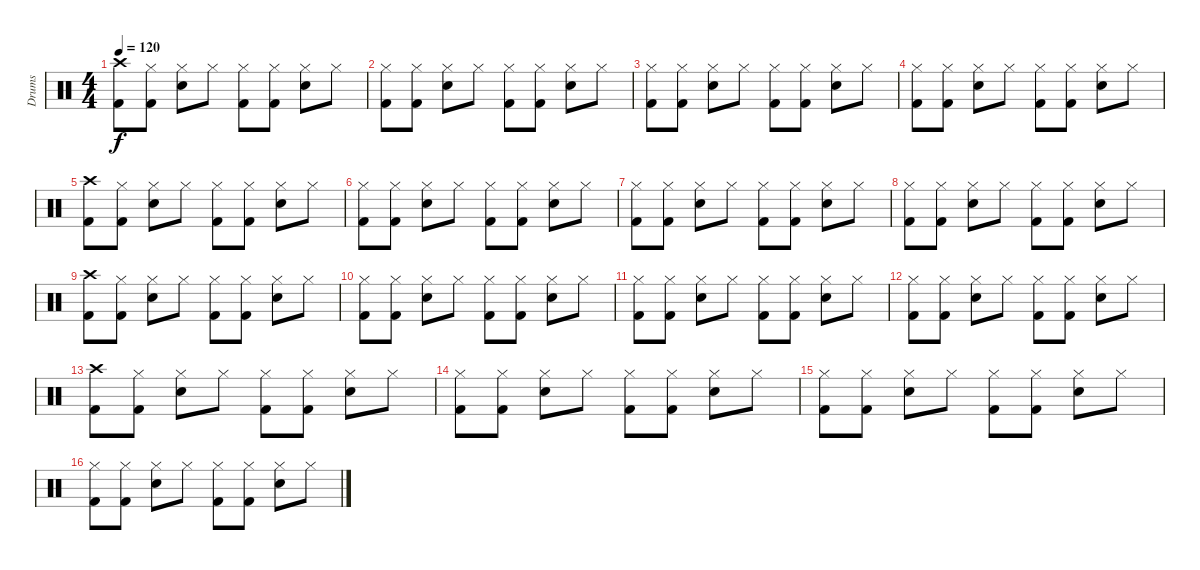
\track ("Drums" "Drums") {instrument percussion}
\staff {score}
\articulation defaults
\ts (4 4)
\tempo 120
\clef neutral
\ks c
("Crash high (hit)" "Kick (hit) 2").8{dy f} ("Hi-Hat (closed)" "Kick (hit) 2").8 ("Hi-Hat (closed)" "Electric Snare (hit)").8 "Hi-Hat (closed)".8 ("Hi-Hat (closed)" "Kick (hit) 2").8 ("Hi-Hat (closed)" "Kick (hit) 2").8 ("Hi-Hat (closed)" "Electric Snare (hit)").8 "Hi-Hat (closed)".8 |
("Hi-Hat (closed)" "Kick (hit) 2").8 ("Hi-Hat (closed)" "Kick (hit) 2").8 ("Hi-Hat (closed)" "Electric Snare (hit)").8 "Hi-Hat (closed)".8 ("Hi-Hat (closed)" "Kick (hit) 2").8 ("Hi-Hat (closed)" "Kick (hit) 2").8 ("Hi-Hat (closed)" "Electric Snare (hit)").8 "Hi-Hat (closed)".8 |
("Hi-Hat (closed)" "Kick (hit) 2").8 ("Hi-Hat (closed)" "Kick (hit) 2").8 ("Hi-Hat (closed)" "Electric Snare (hit)").8 "Hi-Hat (closed)".8 ("Hi-Hat (closed)" "Kick (hit) 2").8 ("Hi-Hat (closed)" "Kick (hit) 2").8 ("Hi-Hat (closed)" "Electric Snare (hit)").8 "Hi-Hat (closed)".8 |
("Hi-Hat (closed)" "Kick (hit) 2").8 ("Hi-Hat (closed)" "Kick (hit) 2").8 ("Hi-Hat (closed)" "Electric Snare (hit)").8 "Hi-Hat (closed)".8 ("Hi-Hat (closed)" "Kick (hit) 2").8 ("Hi-Hat (closed)" "Kick (hit) 2").8 ("Hi-Hat (closed)" "Electric Snare (hit)").8 "Hi-Hat (closed)".8 |
("Crash high (hit)" "Kick (hit) 2").8 ("Hi-Hat (closed)" "Kick (hit) 2").8 ("Hi-Hat (closed)" "Electric Snare (hit)").8 "Hi-Hat (closed)".8 ("Hi-Hat (closed)" "Kick (hit) 2").8 ("Hi-Hat (closed)" "Kick (hit) 2").8 ("Hi-Hat (closed)" "Electric Snare (hit)").8 "Hi-Hat (closed)".8 |
("Hi-Hat (closed)" "Kick (hit) 2").8 ("Hi-Hat (closed)" "Kick (hit) 2").8 ("Hi-Hat (closed)" "Electric Snare (hit)").8 "Hi-Hat (closed)".8 ("Hi-Hat (closed)" "Kick (hit) 2").8 ("Hi-Hat (closed)" "Kick (hit) 2").8 ("Hi-Hat (closed)" "Electric Snare (hit)").8 "Hi-Hat (closed)".8 |
("Hi-Hat (closed)" "Kick (hit) 2").8 ("Hi-Hat (closed)" "Kick (hit) 2").8 ("Hi-Hat (closed)" "Electric Snare (hit)").8 "Hi-Hat (closed)".8 ("Hi-Hat (closed)" "Kick (hit) 2").8 ("Hi-Hat (closed)" "Kick (hit) 2").8 ("Hi-Hat (closed)" "Electric Snare (hit)").8 "Hi-Hat (closed)".8 |
("Hi-Hat (closed)" "Kick (hit) 2").8 ("Hi-Hat (closed)" "Kick (hit) 2").8 ("Hi-Hat (closed)" "Electric Snare (hit)").8 "Hi-Hat (closed)".8 ("Hi-Hat (closed)" "Kick (hit) 2").8 ("Hi-Hat (closed)" "Kick (hit) 2").8 ("Hi-Hat (closed)" "Electric Snare (hit)").8 "Hi-Hat (closed)".8 |
("Crash high (hit)" "Kick (hit) 2").8 ("Hi-Hat (closed)" "Kick (hit) 2").8 ("Hi-Hat (closed)" "Electric Snare (hit)").8 "Hi-Hat (closed)".8 ("Hi-Hat (closed)" "Kick (hit) 2").8 ("Hi-Hat (closed)" "Kick (hit) 2").8 ("Hi-Hat (closed)" "Electric Snare (hit)").8 "Hi-Hat (closed)".8 |
("Hi-Hat (closed)" "Kick (hit) 2").8 ("Hi-Hat (closed)" "Kick (hit) 2").8 ("Hi-Hat (closed)" "Electric Snare (hit)").8 "Hi-Hat (closed)".8 ("Hi-Hat (closed)" "Kick (hit) 2").8 ("Hi-Hat (closed)" "Kick (hit) 2").8 ("Hi-Hat (closed)" "Electric Snare (hit)").8 "Hi-Hat (closed)".8 |
("Hi-Hat (closed)" "Kick (hit) 2").8 ("Hi-Hat (closed)" "Kick (hit) 2").8 ("Hi-Hat (closed)" "Electric Snare (hit)").8 "Hi-Hat (closed)".8 ("Hi-Hat (closed)" "Kick (hit) 2").8 ("Hi-Hat (closed)" "Kick (hit) 2").8 ("Hi-Hat (closed)" "Electric Snare (hit)").8 "Hi-Hat (closed)".8 |
("Hi-Hat (closed)" "Kick (hit) 2").8 ("Hi-Hat (closed)" "Kick (hit) 2").8 ("Hi-Hat (closed)" "Electric Snare (hit)").8 "Hi-Hat (closed)".8 ("Hi-Hat (closed)" "Kick (hit) 2").8 ("Hi-Hat (closed)" "Kick (hit) 2").8 ("Hi-Hat (closed)" "Electric Snare (hit)").8 "Hi-Hat (closed)".8 |
("Crash high (hit)" "Kick (hit) 2").8 ("Hi-Hat (closed)" "Kick (hit) 2").8 ("Hi-Hat (closed)" "Electric Snare (hit)").8 "Hi-Hat (closed)".8 ("Hi-Hat (closed)" "Kick (hit) 2").8 ("Hi-Hat (closed)" "Kick (hit) 2").8 ("Hi-Hat (closed)" "Electric Snare (hit)").8 "Hi-Hat (closed)".8 |
("Hi-Hat (closed)" "Kick (hit) 2").8 ("Hi-Hat (closed)" "Kick (hit) 2").8 ("Hi-Hat (closed)" "Electric Snare (hit)").8 "Hi-Hat (closed)".8 ("Hi-Hat (closed)" "Kick (hit) 2").8 ("Hi-Hat (closed)" "Kick (hit) 2").8 ("Hi-Hat (closed)" "Electric Snare (hit)").8 "Hi-Hat (closed)".8 |
("Hi-Hat (closed)" "Kick (hit) 2").8 ("Hi-Hat (closed)" "Kick (hit) 2").8 ("Hi-Hat (closed)" "Electric Snare (hit)").8 "Hi-Hat (closed)".8 ("Hi-Hat (closed)" "Kick (hit) 2").8 ("Hi-Hat (closed)" "Kick (hit) 2").8 ("Hi-Hat (closed)" "Electric Snare (hit)").8 "Hi-Hat (closed)".8 |
("Hi-Hat (closed)" "Kick (hit) 2").8 ("Hi-Hat (closed)" "Kick (hit) 2").8 ("Hi-Hat (closed)" "Electric Snare (hit)").8 "Hi-Hat (closed)".8 ("Hi-Hat (closed)" "Kick (hit) 2").8 ("Hi-Hat (closed)" "Kick (hit) 2").8 ("Hi-Hat (closed)" "Electric Snare (hit)").8 "Hi-Hat (closed)".8
